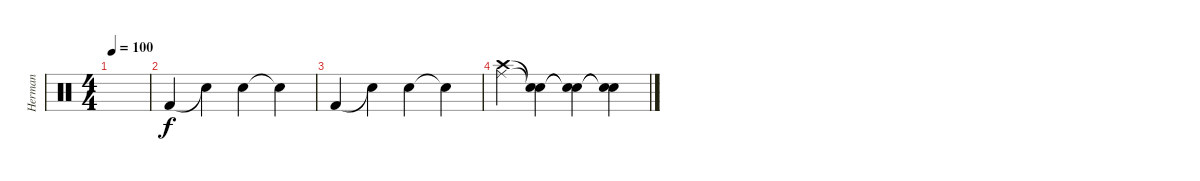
\track ("Herman" "Herman") {instrument percussion}
\staff {score}
\articulation defaults
\ts (4 4)
\tempo 100
\clef neutral
\ks c
|
"Kick (hit) 2".4 "Snare (hit)"{t}.4 "Snare (hit) 2".4 "Snare (hit)"{t}.4 |
"Kick (hit) 2".4 "Snare (hit)"{t}.4 "Snare (hit) 2".4 "Snare (hit)"{t}.4 |
("Ride (middle)" "Crash high (hit)").4 ("Snare (hit)"{t} "Snare (hit)"{t}).4 ("Snare (hit)"{t} "Snare (hit)"{t}).4 ("Snare (hit)"{t} "Snare (hit)"{t}).4
